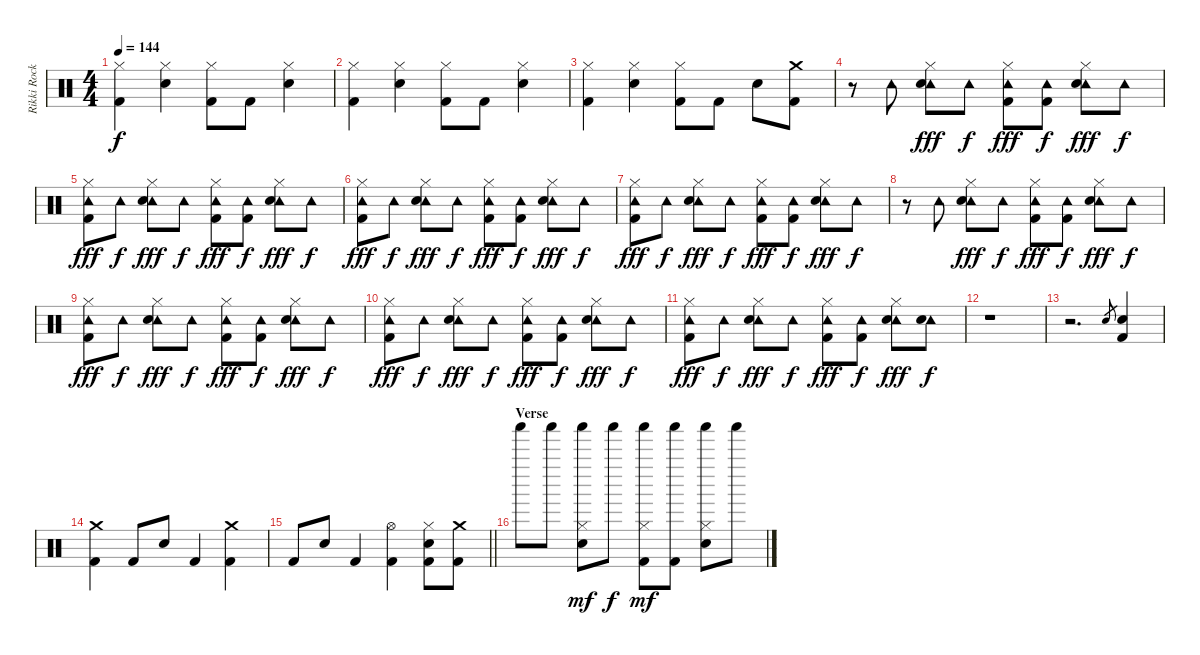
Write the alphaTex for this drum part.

\track ("Rikki Rockett - Drums" "Rikki Rock") {instrument percussion}
\staff {score}
\articulation defaults
\ts (4 4)
\tempo 144
\clef neutral
\ks c
("Hi-Hat (closed)" "Kick (hit) 2").4{dy f} ("Hi-Hat (closed)" "Electric Snare (hit)").4 ("Hi-Hat (closed)" "Kick (hit) 2").8 "Kick (hit) 2".8 ("Hi-Hat (closed)" "Electric Snare (hit)").4 |
("Hi-Hat (closed)" "Kick (hit) 2").4 ("Hi-Hat (closed)" "Electric Snare (hit)").4 ("Hi-Hat (closed)" "Kick (hit) 2").8 "Kick (hit) 2".8 ("Hi-Hat (closed)" "Electric Snare (hit)").4 |
("Hi-Hat (closed)" "Kick (hit) 2").4 ("Hi-Hat (closed)" "Electric Snare (hit)").4 ("Hi-Hat (closed)" "Kick (hit) 2").8 "Kick (hit) 2".8 "Electric Snare (hit)".8 ("Crash medium (hit)" "Kick (hit) 2").8 |
r.8 "Tambourine (hit)".8 ("Hi-Hat (closed)" "Tambourine (hit)" "Electric Snare (hit)").8{dy fff} "Tambourine (hit)".8{dy f} ("Hi-Hat (closed)" "Tambourine (hit)" "Kick (hit) 2").8{dy fff} ("Tambourine (hit)" "Kick (hit) 2").8{dy f} ("Hi-Hat (closed)" "Tambourine (hit)" "Electric Snare (hit)").8{dy fff} "Tambourine (hit)".8{dy f} |
("Hi-Hat (closed)" "Tambourine (hit)" "Kick (hit) 2").8{dy fff} "Tambourine (hit)".8{dy f} ("Hi-Hat (closed)" "Tambourine (hit)" "Electric Snare (hit)").8{dy fff} "Tambourine (hit)".8{dy f} ("Hi-Hat (closed)" "Tambourine (hit)" "Kick (hit) 2").8{dy fff} ("Tambourine (hit)" "Kick (hit) 2").8{dy f} ("Hi-Hat (closed)" "Tambourine (hit)" "Electric Snare (hit)").8{dy fff} "Tambourine (hit)".8{dy f} |
("Hi-Hat (closed)" "Tambourine (hit)" "Kick (hit) 2").8{dy fff} "Tambourine (hit)".8{dy f} ("Hi-Hat (closed)" "Tambourine (hit)" "Electric Snare (hit)").8{dy fff} "Tambourine (hit)".8{dy f} ("Hi-Hat (closed)" "Tambourine (hit)" "Kick (hit) 2").8{dy fff} ("Tambourine (hit)" "Kick (hit) 2").8{dy f} ("Hi-Hat (closed)" "Tambourine (hit)" "Electric Snare (hit)").8{dy fff} "Tambourine (hit)".8{dy f} |
("Hi-Hat (closed)" "Tambourine (hit)" "Kick (hit) 2").8{dy fff} "Tambourine (hit)".8{dy f} ("Hi-Hat (closed)" "Tambourine (hit)" "Electric Snare (hit)").8{dy fff} "Tambourine (hit)".8{dy f} ("Hi-Hat (closed)" "Tambourine (hit)" "Kick (hit) 2").8{dy fff} ("Tambourine (hit)" "Kick (hit) 2").8{dy f} ("Hi-Hat (closed)" "Tambourine (hit)" "Electric Snare (hit)").8{dy fff} "Tambourine (hit)".8{dy f} |
r.8 "Tambourine (hit)".8 ("Hi-Hat (closed)" "Tambourine (hit)" "Electric Snare (hit)").8{dy fff} "Tambourine (hit)".8{dy f} ("Hi-Hat (closed)" "Tambourine (hit)" "Kick (hit) 2").8{dy fff} ("Tambourine (hit)" "Kick (hit) 2").8{dy f} ("Hi-Hat (closed)" "Tambourine (hit)" "Electric Snare (hit)").8{dy fff} "Tambourine (hit)".8{dy f} |
("Hi-Hat (closed)" "Tambourine (hit)" "Kick (hit) 2").8{dy fff} "Tambourine (hit)".8{dy f} ("Hi-Hat (closed)" "Tambourine (hit)" "Electric Snare (hit)").8{dy fff} "Tambourine (hit)".8{dy f} ("Hi-Hat (closed)" "Tambourine (hit)" "Kick (hit) 2").8{dy fff} ("Tambourine (hit)" "Kick (hit) 2").8{dy f} ("Hi-Hat (closed)" "Tambourine (hit)" "Electric Snare (hit)").8{dy fff} "Tambourine (hit)".8{dy f} |
("Hi-Hat (closed)" "Tambourine (hit)" "Kick (hit) 2").8{dy fff} "Tambourine (hit)".8{dy f} ("Hi-Hat (closed)" "Tambourine (hit)" "Electric Snare (hit)").8{dy fff} "Tambourine (hit)".8{dy f} ("Hi-Hat (closed)" "Tambourine (hit)" "Kick (hit) 2").8{dy fff} ("Tambourine (hit)" "Kick (hit) 2").8{dy f} ("Hi-Hat (closed)" "Tambourine (hit)" "Electric Snare (hit)").8{dy fff} "Tambourine (hit)".8{dy f} |
("Hi-Hat (closed)" "Tambourine (hit)" "Kick (hit) 2").8{dy fff} "Tambourine (hit)".8{dy f} ("Hi-Hat (closed)" "Tambourine (hit)" "Electric Snare (hit)").8{dy fff} "Tambourine (hit)".8{dy f} ("Hi-Hat (closed)" "Tambourine (hit)" "Kick (hit) 2").8{dy fff} ("Tambourine (hit)" "Kick (hit) 2").8{dy f} ("Hi-Hat (closed)" "Tambourine (hit)" "Electric Snare (hit)").8{dy fff} ("Tambourine (hit)" "Electric Snare (hit)").8{dy f} |
r.1 |
r.2{d} "Electric Snare (hit)".8{gr} ("Electric Snare (hit)" "Kick (hit) 2").4 |
("Crash medium (hit)" "Kick (hit) 2").4 "Kick (hit) 2".8 "Electric Snare (hit)".8 "Kick (hit) 2".4 ("Crash medium (hit)" "Kick (hit) 2").4 |
\barLineRight lightlight "Kick (hit) 2".8 "Electric Snare (hit)".8 "Kick (hit) 2".4
("Hi-Hat (open)" "Kick (hit) 2").4 ("Hi-Hat (closed)" "Electric Snare (hit)" "Kick (hit) 2").8 ("Crash medium (hit)" "Kick (hit) 2").8 |
\section ("" "Verse")
"Shaker (hit)".8 "Shaker (hit)".8 ("Hi-Hat (closed)" "Shaker (hit)" "Electric Snare (hit)").8{dy mf} "Shaker (hit)".8{dy f} ("Hi-Hat (closed)" "Shaker (hit)" "Kick (hit) 2").8{dy mf} ("Shaker (hit)" "Kick (hit) 2").8 ("Hi-Hat (closed)" "Shaker (hit)" "Electric Snare (hit)").8 "Shaker (hit)".8
